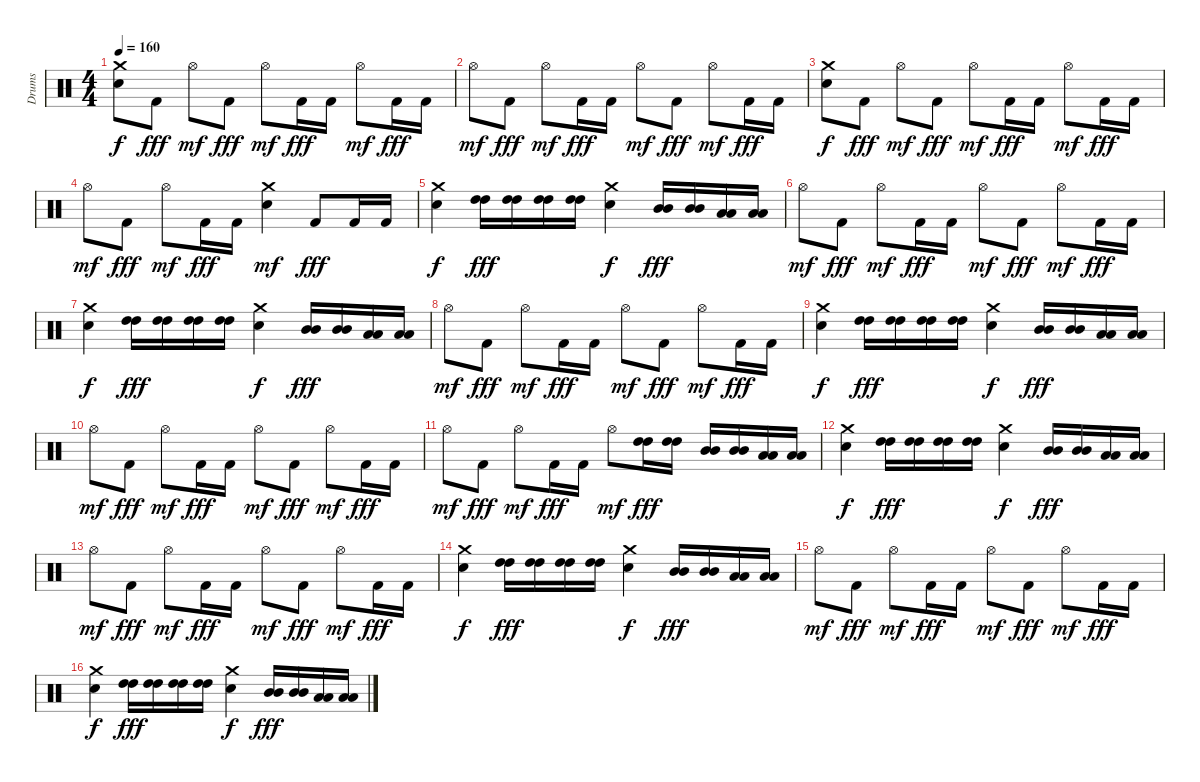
\track ("Drums" "Drums") {instrument percussion}
\staff {score}
\articulation defaults
\ts (4 4)
\tempo 160
\clef neutral
\ks c
("Crash medium (hit)" "Electric Snare (hit)").8{dy f} "Kick (hit) 2".8{dy fff} "Hi-Hat (open)".8{dy mf} "Kick (hit) 2".8{dy fff} "Hi-Hat (open)".8{dy mf} "Kick (hit) 2".16{dy fff} "Kick (hit) 2".16 "Hi-Hat (open)".8{dy mf} "Kick (hit) 2".16{dy fff} "Kick (hit) 2".16 |
"Hi-Hat (open)".8{dy mf} "Kick (hit) 2".8{dy fff} "Hi-Hat (open)".8{dy mf} "Kick (hit) 2".16{dy fff} "Kick (hit) 2".16 "Hi-Hat (open)".8{dy mf} "Kick (hit) 2".8{dy fff} "Hi-Hat (open)".8{dy mf} "Kick (hit) 2".16{dy fff} "Kick (hit) 2".16 |
("Crash medium (hit)" "Electric Snare (hit)").8{dy f} "Kick (hit) 2".8{dy fff} "Hi-Hat (open)".8{dy mf} "Kick (hit) 2".8{dy fff} "Hi-Hat (open)".8{dy mf} "Kick (hit) 2".16{dy fff} "Kick (hit) 2".16 "Hi-Hat (open)".8{dy mf} "Kick (hit) 2".16{dy fff} "Kick (hit) 2".16 |
"Hi-Hat (open)".8{dy mf} "Kick (hit) 2".8{dy fff} "Hi-Hat (open)".8{dy mf} "Kick (hit) 2".16{dy fff} "Kick (hit) 2".16 ("Electric Snare (hit)" "Crash medium (hit)").4{dy mf} "Kick (hit) 2".8{dy fff} "Kick (hit) 2".16 "Kick (hit) 2".16 |
("Crash medium (hit)" "Electric Snare (hit)").4{dy f} ("High Tom (hit)" "High Tom (hit)").16{dy fff} ("High Tom (hit)" "High Tom (hit)").16 ("High Tom (hit)" "High Tom (hit)").16 ("High Tom (hit)" "High Tom (hit)").16 ("Crash medium (hit)" "Electric Snare (hit)").4{dy f} ("Mid Tom (hit)" "Mid Tom (hit)").16{dy fff} ("Mid Tom (hit)" "Mid Tom (hit)").16 ("Low Tom (hit)" "Low Tom (hit)").16 ("Low Tom (hit)" "Low Tom (hit)").16 |
"Hi-Hat (open)".8{dy mf} "Kick (hit) 2".8{dy fff} "Hi-Hat (open)".8{dy mf} "Kick (hit) 2".16{dy fff} "Kick (hit) 2".16 "Hi-Hat (open)".8{dy mf} "Kick (hit) 2".8{dy fff} "Hi-Hat (open)".8{dy mf} "Kick (hit) 2".16{dy fff} "Kick (hit) 2".16 |
("Crash medium (hit)" "Electric Snare (hit)").4{dy f} ("High Tom (hit)" "High Tom (hit)").16{dy fff} ("High Tom (hit)" "High Tom (hit)").16 ("High Tom (hit)" "High Tom (hit)").16 ("High Tom (hit)" "High Tom (hit)").16 ("Crash medium (hit)" "Electric Snare (hit)").4{dy f} ("Mid Tom (hit)" "Mid Tom (hit)").16{dy fff} ("Mid Tom (hit)" "Mid Tom (hit)").16 ("Low Tom (hit)" "Low Tom (hit)").16 ("Low Tom (hit)" "Low Tom (hit)").16 |
"Hi-Hat (open)".8{dy mf} "Kick (hit) 2".8{dy fff} "Hi-Hat (open)".8{dy mf} "Kick (hit) 2".16{dy fff} "Kick (hit) 2".16 "Hi-Hat (open)".8{dy mf} "Kick (hit) 2".8{dy fff} "Hi-Hat (open)".8{dy mf} "Kick (hit) 2".16{dy fff} "Kick (hit) 2".16 |
("Crash medium (hit)" "Electric Snare (hit)").4{dy f} ("High Tom (hit)" "High Tom (hit)").16{dy fff} ("High Tom (hit)" "High Tom (hit)").16 ("High Tom (hit)" "High Tom (hit)").16 ("High Tom (hit)" "High Tom (hit)").16 ("Crash medium (hit)" "Electric Snare (hit)").4{dy f} ("Mid Tom (hit)" "Mid Tom (hit)").16{dy fff} ("Mid Tom (hit)" "Mid Tom (hit)").16 ("Low Tom (hit)" "Low Tom (hit)").16 ("Low Tom (hit)" "Low Tom (hit)").16 |
"Hi-Hat (open)".8{dy mf} "Kick (hit) 2".8{dy fff} "Hi-Hat (open)".8{dy mf} "Kick (hit) 2".16{dy fff} "Kick (hit) 2".16 "Hi-Hat (open)".8{dy mf} "Kick (hit) 2".8{dy fff} "Hi-Hat (open)".8{dy mf} "Kick (hit) 2".16{dy fff} "Kick (hit) 2".16 |
"Hi-Hat (open)".8{dy mf} "Kick (hit) 2".8{dy fff} "Hi-Hat (open)".8{dy mf} "Kick (hit) 2".16{dy fff} "Kick (hit) 2".16 "Hi-Hat (open)".8{dy mf} ("High Tom (hit)" "High Tom (hit)").16{dy fff} ("High Tom (hit)" "High Tom (hit)").16 ("Mid Tom (hit)" "Mid Tom (hit)").16 ("Mid Tom (hit)" "Mid Tom (hit)").16 ("Low Tom (hit)" "Low Tom (hit)").16 ("Low Tom (hit)" "Low Tom (hit)").16 |
("Crash medium (hit)" "Electric Snare (hit)").4{dy f} ("High Tom (hit)" "High Tom (hit)").16{dy fff} ("High Tom (hit)" "High Tom (hit)").16 ("High Tom (hit)" "High Tom (hit)").16 ("High Tom (hit)" "High Tom (hit)").16 ("Crash medium (hit)" "Electric Snare (hit)").4{dy f} ("Mid Tom (hit)" "Mid Tom (hit)").16{dy fff} ("Mid Tom (hit)" "Mid Tom (hit)").16 ("Low Tom (hit)" "Low Tom (hit)").16 ("Low Tom (hit)" "Low Tom (hit)").16 |
"Hi-Hat (open)".8{dy mf} "Kick (hit) 2".8{dy fff} "Hi-Hat (open)".8{dy mf} "Kick (hit) 2".16{dy fff} "Kick (hit) 2".16 "Hi-Hat (open)".8{dy mf} "Kick (hit) 2".8{dy fff} "Hi-Hat (open)".8{dy mf} "Kick (hit) 2".16{dy fff} "Kick (hit) 2".16 |
("Crash medium (hit)" "Electric Snare (hit)").4{dy f} ("High Tom (hit)" "High Tom (hit)").16{dy fff} ("High Tom (hit)" "High Tom (hit)").16 ("High Tom (hit)" "High Tom (hit)").16 ("High Tom (hit)" "High Tom (hit)").16 ("Crash medium (hit)" "Electric Snare (hit)").4{dy f} ("Mid Tom (hit)" "Mid Tom (hit)").16{dy fff} ("Mid Tom (hit)" "Mid Tom (hit)").16 ("Low Tom (hit)" "Low Tom (hit)").16 ("Low Tom (hit)" "Low Tom (hit)").16 |
"Hi-Hat (open)".8{dy mf} "Kick (hit) 2".8{dy fff} "Hi-Hat (open)".8{dy mf} "Kick (hit) 2".16{dy fff} "Kick (hit) 2".16 "Hi-Hat (open)".8{dy mf} "Kick (hit) 2".8{dy fff} "Hi-Hat (open)".8{dy mf} "Kick (hit) 2".16{dy fff} "Kick (hit) 2".16 |
("Crash medium (hit)" "Electric Snare (hit)").4{dy f} ("High Tom (hit)" "High Tom (hit)").16{dy fff} ("High Tom (hit)" "High Tom (hit)").16 ("High Tom (hit)" "High Tom (hit)").16 ("High Tom (hit)" "High Tom (hit)").16 ("Crash medium (hit)" "Electric Snare (hit)").4{dy f} ("Mid Tom (hit)" "Mid Tom (hit)").16{dy fff} ("Mid Tom (hit)" "Mid Tom (hit)").16 ("Low Tom (hit)" "Low Tom (hit)").16 ("Low Tom (hit)" "Low Tom (hit)").16
